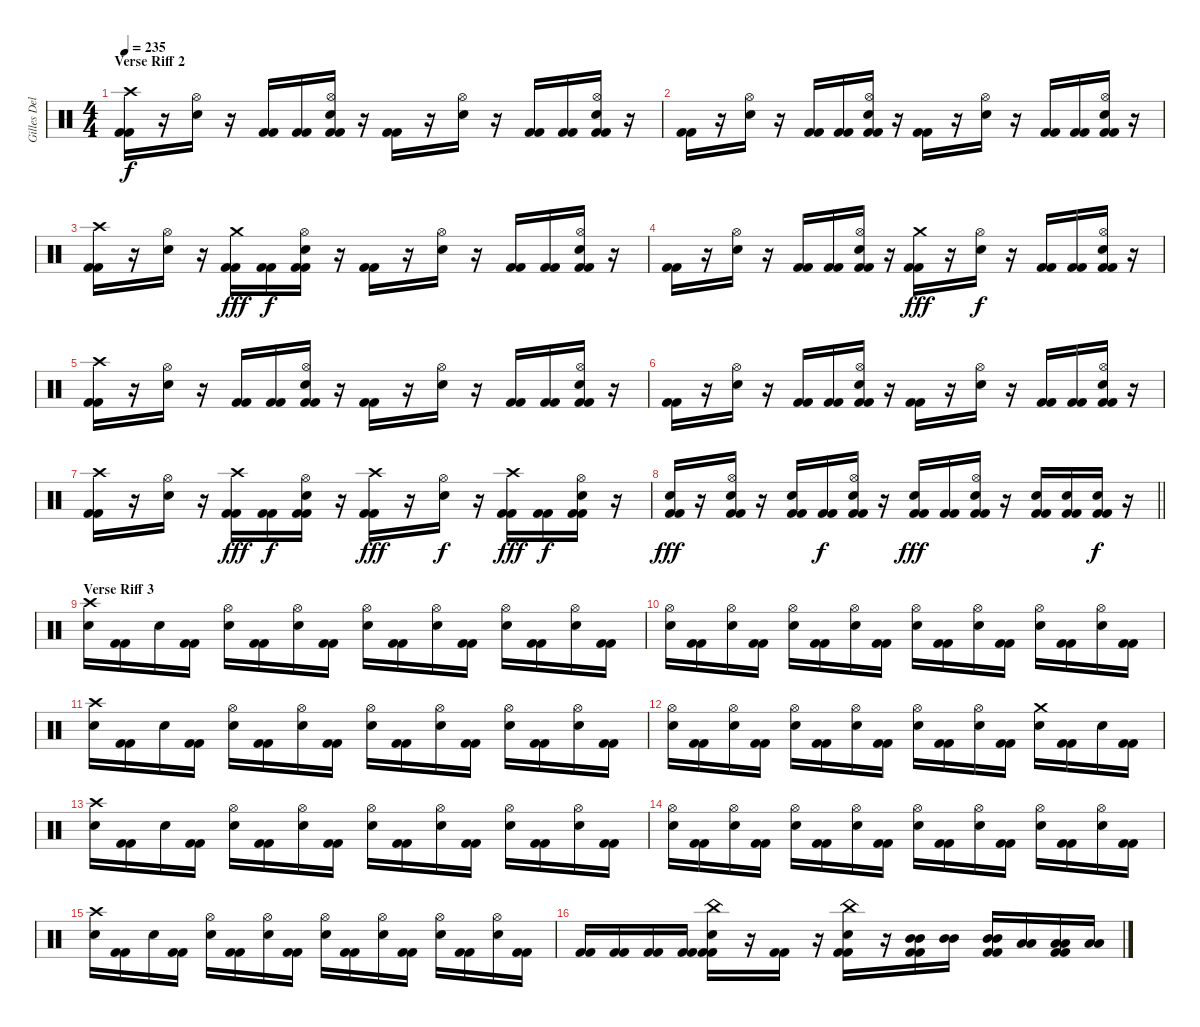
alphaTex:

\track ("Gilles Delecroix" "Gilles Del") {instrument percussion}
\staff {score}
\articulation defaults
\ts (4 4)
\section ("" "Verse Riff 2")
\tempo 235
\clef neutral
\ks c
("Crash high (hit)" "Kick (hit) 2" "Kick (hit) 2").16{dy f} r.16 ("Hi-Hat (open)" "Electric Snare (hit)").16 r.16 ("Kick (hit) 2" "Kick (hit) 2").16 ("Kick (hit) 2" "Kick (hit) 2").16 ("Hi-Hat (open)" "Electric Snare (hit)" "Kick (hit) 2" "Kick (hit) 2").16 r.16 ("Kick (hit) 2" "Kick (hit) 2").16 r.16 ("Hi-Hat (open)" "Electric Snare (hit)").16 r.16 ("Kick (hit) 2" "Kick (hit) 2").16 ("Kick (hit) 2" "Kick (hit) 2").16 ("Hi-Hat (open)" "Electric Snare (hit)" "Kick (hit) 2" "Kick (hit) 2").16 r.16 |
("Kick (hit) 2" "Kick (hit) 2").16 r.16 ("Hi-Hat (open)" "Electric Snare (hit)").16 r.16 ("Kick (hit) 2" "Kick (hit) 2").16 ("Kick (hit) 2" "Kick (hit) 2").16 ("Hi-Hat (open)" "Electric Snare (hit)" "Kick (hit) 2" "Kick (hit) 2").16 r.16 ("Kick (hit) 2" "Kick (hit) 2").16 r.16 ("Hi-Hat (open)" "Electric Snare (hit)").16 r.16 ("Kick (hit) 2" "Kick (hit) 2").16 ("Kick (hit) 2" "Kick (hit) 2").16 ("Hi-Hat (open)" "Electric Snare (hit)" "Kick (hit) 2" "Kick (hit) 2").16 r.16 |
("Crash high (hit)" "Kick (hit) 2" "Kick (hit) 2").16 r.16 ("Hi-Hat (open)" "Electric Snare (hit)").16 r.16 ("Crash medium (hit)" "Kick (hit) 2" "Kick (hit) 2").16{dy fff} ("Kick (hit) 2" "Kick (hit) 2").16{dy f} ("Hi-Hat (open)" "Electric Snare (hit)" "Kick (hit) 2" "Kick (hit) 2").16 r.16 ("Kick (hit) 2" "Kick (hit) 2").16 r.16 ("Hi-Hat (open)" "Electric Snare (hit)").16 r.16 ("Kick (hit) 2" "Kick (hit) 2").16 ("Kick (hit) 2" "Kick (hit) 2").16 ("Hi-Hat (open)" "Electric Snare (hit)" "Kick (hit) 2" "Kick (hit) 2").16 r.16 |
("Kick (hit) 2" "Kick (hit) 2").16 r.16 ("Hi-Hat (open)" "Electric Snare (hit)").16 r.16 ("Kick (hit) 2" "Kick (hit) 2").16 ("Kick (hit) 2" "Kick (hit) 2").16 ("Hi-Hat (open)" "Electric Snare (hit)" "Kick (hit) 2" "Kick (hit) 2").16 r.16 ("Crash medium (hit)" "Kick (hit) 2" "Kick (hit) 2").16{dy fff} r.16 ("Hi-Hat (open)" "Electric Snare (hit)").16{dy f} r.16 ("Kick (hit) 2" "Kick (hit) 2").16 ("Kick (hit) 2" "Kick (hit) 2").16 ("Hi-Hat (open)" "Electric Snare (hit)" "Kick (hit) 2" "Kick (hit) 2").16 r.16 |
("Crash high (hit)" "Kick (hit) 2" "Kick (hit) 2").16 r.16 ("Hi-Hat (open)" "Electric Snare (hit)").16 r.16 ("Kick (hit) 2" "Kick (hit) 2").16 ("Kick (hit) 2" "Kick (hit) 2").16 ("Hi-Hat (open)" "Electric Snare (hit)" "Kick (hit) 2" "Kick (hit) 2").16 r.16 ("Kick (hit) 2" "Kick (hit) 2").16 r.16 ("Hi-Hat (open)" "Electric Snare (hit)").16 r.16 ("Kick (hit) 2" "Kick (hit) 2").16 ("Kick (hit) 2" "Kick (hit) 2").16 ("Hi-Hat (open)" "Electric Snare (hit)" "Kick (hit) 2" "Kick (hit) 2").16 r.16 |
("Kick (hit) 2" "Kick (hit) 2").16 r.16 ("Hi-Hat (open)" "Electric Snare (hit)").16 r.16 ("Kick (hit) 2" "Kick (hit) 2").16 ("Kick (hit) 2" "Kick (hit) 2").16 ("Hi-Hat (open)" "Electric Snare (hit)" "Kick (hit) 2" "Kick (hit) 2").16 r.16 ("Kick (hit) 2" "Kick (hit) 2").16 r.16 ("Hi-Hat (open)" "Electric Snare (hit)").16 r.16 ("Kick (hit) 2" "Kick (hit) 2").16 ("Kick (hit) 2" "Kick (hit) 2").16 ("Hi-Hat (open)" "Electric Snare (hit)" "Kick (hit) 2" "Kick (hit) 2").16 r.16 |
("Crash high (hit)" "Kick (hit) 2" "Kick (hit) 2").16 r.16 ("Hi-Hat (open)" "Electric Snare (hit)").16 r.16 ("Crash high (hit)" "Kick (hit) 2" "Kick (hit) 2").16{dy fff} ("Kick (hit) 2" "Kick (hit) 2").16{dy f} ("Hi-Hat (open)" "Electric Snare (hit)" "Kick (hit) 2" "Kick (hit) 2").16 r.16 ("Crash high (hit)" "Kick (hit) 2" "Kick (hit) 2").16{dy fff} r.16 ("Hi-Hat (open)" "Electric Snare (hit)").16{dy f} r.16 ("Crash high (hit)" "Kick (hit) 2" "Kick (hit) 2").16{dy fff} ("Kick (hit) 2" "Kick (hit) 2").16{dy f} ("Hi-Hat (open)" "Electric Snare (hit)" "Kick (hit) 2" "Kick (hit) 2").16 r.16 |
\barLineRight lightlight
("Electric Snare (hit)" "Kick (hit) 2" "Kick (hit) 2").16{dy fff} r.16 ("Hi-Hat (open)" "Electric Snare (hit)" "Kick (hit) 2" "Kick (hit) 2").16 r.16 ("Electric Snare (hit)" "Kick (hit) 2" "Kick (hit) 2").16 ("Kick (hit) 2" "Kick (hit) 2").16{dy f} ("Hi-Hat (open)" "Electric Snare (hit)" "Kick (hit) 2" "Kick (hit) 2").16 r.16 ("Electric Snare (hit)" "Kick (hit) 2" "Kick (hit) 2").16{dy fff} ("Kick (hit) 2" "Kick (hit) 2").16 ("Hi-Hat (open)" "Electric Snare (hit)" "Kick (hit) 2" "Kick (hit) 2").16 r.16 ("Electric Snare (hit)" "Kick (hit) 2" "Kick (hit) 2").16 ("Electric Snare (hit)" "Kick (hit) 2" "Kick (hit) 2").16 ("Electric Snare (hit)" "Kick (hit) 2" "Kick (hit) 2").16{dy f} r.16 |
\section ("" "Verse Riff 3")
("Crash high (hit)" "Electric Snare (hit)").16 ("Kick (hit) 2" "Kick (hit) 2").16 "Electric Snare (hit)".16 ("Kick (hit) 2" "Kick (hit) 2").16 ("Hi-Hat (open)" "Electric Snare (hit)").16 ("Kick (hit) 2" "Kick (hit) 2").16 ("Hi-Hat (open)" "Electric Snare (hit)").16 ("Kick (hit) 2" "Kick (hit) 2").16 ("Hi-Hat (open)" "Electric Snare (hit)").16 ("Kick (hit) 2" "Kick (hit) 2").16 ("Hi-Hat (open)" "Electric Snare (hit)").16 ("Kick (hit) 2" "Kick (hit) 2").16 ("Hi-Hat (open)" "Electric Snare (hit)").16 ("Kick (hit) 2" "Kick (hit) 2").16 ("Hi-Hat (open)" "Electric Snare (hit)").16 ("Kick (hit) 2" "Kick (hit) 2").16 |
("Hi-Hat (open)" "Electric Snare (hit)").16 ("Kick (hit) 2" "Kick (hit) 2").16 ("Hi-Hat (open)" "Electric Snare (hit)").16 ("Kick (hit) 2" "Kick (hit) 2").16 ("Hi-Hat (open)" "Electric Snare (hit)").16 ("Kick (hit) 2" "Kick (hit) 2").16 ("Hi-Hat (open)" "Electric Snare (hit)").16 ("Kick (hit) 2" "Kick (hit) 2").16 ("Hi-Hat (open)" "Electric Snare (hit)").16 ("Kick (hit) 2" "Kick (hit) 2").16 ("Hi-Hat (open)" "Electric Snare (hit)").16 ("Kick (hit) 2" "Kick (hit) 2").16 ("Hi-Hat (open)" "Electric Snare (hit)").16 ("Kick (hit) 2" "Kick (hit) 2").16 ("Hi-Hat (open)" "Electric Snare (hit)").16 ("Kick (hit) 2" "Kick (hit) 2").16 |
("Crash high (hit)" "Electric Snare (hit)").16 ("Kick (hit) 2" "Kick (hit) 2").16 "Electric Snare (hit)".16 ("Kick (hit) 2" "Kick (hit) 2").16 ("Hi-Hat (open)" "Electric Snare (hit)").16 ("Kick (hit) 2" "Kick (hit) 2").16 ("Hi-Hat (open)" "Electric Snare (hit)").16 ("Kick (hit) 2" "Kick (hit) 2").16 ("Hi-Hat (open)" "Electric Snare (hit)").16 ("Kick (hit) 2" "Kick (hit) 2").16 ("Hi-Hat (open)" "Electric Snare (hit)").16 ("Kick (hit) 2" "Kick (hit) 2").16 ("Hi-Hat (open)" "Electric Snare (hit)").16 ("Kick (hit) 2" "Kick (hit) 2").16 ("Hi-Hat (open)" "Electric Snare (hit)").16 ("Kick (hit) 2" "Kick (hit) 2").16 |
("Hi-Hat (open)" "Electric Snare (hit)").16 ("Kick (hit) 2" "Kick (hit) 2").16 ("Hi-Hat (open)" "Electric Snare (hit)").16 ("Kick (hit) 2" "Kick (hit) 2").16 ("Hi-Hat (open)" "Electric Snare (hit)").16 ("Kick (hit) 2" "Kick (hit) 2").16 ("Hi-Hat (open)" "Electric Snare (hit)").16 ("Kick (hit) 2" "Kick (hit) 2").16 ("Hi-Hat (open)" "Electric Snare (hit)").16 ("Kick (hit) 2" "Kick (hit) 2").16 ("Hi-Hat (open)" "Electric Snare (hit)").16 ("Kick (hit) 2" "Kick (hit) 2").16 ("Crash medium (hit)" "Electric Snare (hit)").16 ("Kick (hit) 2" "Kick (hit) 2").16 "Electric Snare (hit)".16 ("Kick (hit) 2" "Kick (hit) 2").16 |
("Crash high (hit)" "Electric Snare (hit)").16 ("Kick (hit) 2" "Kick (hit) 2").16 "Electric Snare (hit)".16 ("Kick (hit) 2" "Kick (hit) 2").16 ("Hi-Hat (open)" "Electric Snare (hit)").16 ("Kick (hit) 2" "Kick (hit) 2").16 ("Hi-Hat (open)" "Electric Snare (hit)").16 ("Kick (hit) 2" "Kick (hit) 2").16 ("Hi-Hat (open)" "Electric Snare (hit)").16 ("Kick (hit) 2" "Kick (hit) 2").16 ("Hi-Hat (open)" "Electric Snare (hit)").16 ("Kick (hit) 2" "Kick (hit) 2").16 ("Hi-Hat (open)" "Electric Snare (hit)").16 ("Kick (hit) 2" "Kick (hit) 2").16 ("Hi-Hat (open)" "Electric Snare (hit)").16 ("Kick (hit) 2" "Kick (hit) 2").16 |
("Hi-Hat (open)" "Electric Snare (hit)").16 ("Kick (hit) 2" "Kick (hit) 2").16 ("Hi-Hat (open)" "Electric Snare (hit)").16 ("Kick (hit) 2" "Kick (hit) 2").16 ("Hi-Hat (open)" "Electric Snare (hit)").16 ("Kick (hit) 2" "Kick (hit) 2").16 ("Hi-Hat (open)" "Electric Snare (hit)").16 ("Kick (hit) 2" "Kick (hit) 2").16 ("Hi-Hat (open)" "Electric Snare (hit)").16 ("Kick (hit) 2" "Kick (hit) 2").16 ("Hi-Hat (open)" "Electric Snare (hit)").16 ("Kick (hit) 2" "Kick (hit) 2").16 ("Hi-Hat (open)" "Electric Snare (hit)").16 ("Kick (hit) 2" "Kick (hit) 2").16 ("Hi-Hat (open)" "Electric Snare (hit)").16 ("Kick (hit) 2" "Kick (hit) 2").16 |
("Crash high (hit)" "Electric Snare (hit)").16 ("Kick (hit) 2" "Kick (hit) 2").16 "Electric Snare (hit)".16 ("Kick (hit) 2" "Kick (hit) 2").16 ("Hi-Hat (open)" "Electric Snare (hit)").16 ("Kick (hit) 2" "Kick (hit) 2").16 ("Hi-Hat (open)" "Electric Snare (hit)").16 ("Kick (hit) 2" "Kick (hit) 2").16 ("Hi-Hat (open)" "Electric Snare (hit)").16 ("Kick (hit) 2" "Kick (hit) 2").16 ("Hi-Hat (open)" "Electric Snare (hit)").16 ("Kick (hit) 2" "Kick (hit) 2").16 ("Hi-Hat (open)" "Electric Snare (hit)").16 ("Kick (hit) 2" "Kick (hit) 2").16 ("Hi-Hat (open)" "Electric Snare (hit)").16 ("Kick (hit) 2" "Kick (hit) 2").16 |
("Kick (hit) 2" "Kick (hit) 2").16 ("Kick (hit) 2" "Kick (hit) 2").16 ("Kick (hit) 2" "Kick (hit) 2").16 ("Kick (hit) 2" "Kick (hit) 2").16 ("China (hit)" "Electric Snare (hit)" "Kick (hit) 2" "Kick (hit) 2").16 r.16 ("Kick (hit) 2" "Kick (hit) 2").16 r.16 ("China (hit)" "Electric Snare (hit)" "Kick (hit) 2" "Kick (hit) 2").16 r.16 ("Mid Tom (hit)" "Mid Tom (hit)" "Kick (hit) 2" "Kick (hit) 2").16 ("Mid Tom (hit)" "Mid Tom (hit)").16 ("Mid Tom (hit)" "Mid Tom (hit)" "Kick (hit) 2" "Kick (hit) 2").16 ("Low Tom (hit)" "Low Tom (hit)").16 ("Low Tom (hit)" "Low Tom (hit)" "Kick (hit) 2" "Kick (hit) 2").16 ("Low Tom (hit)" "Low Tom (hit)").16
